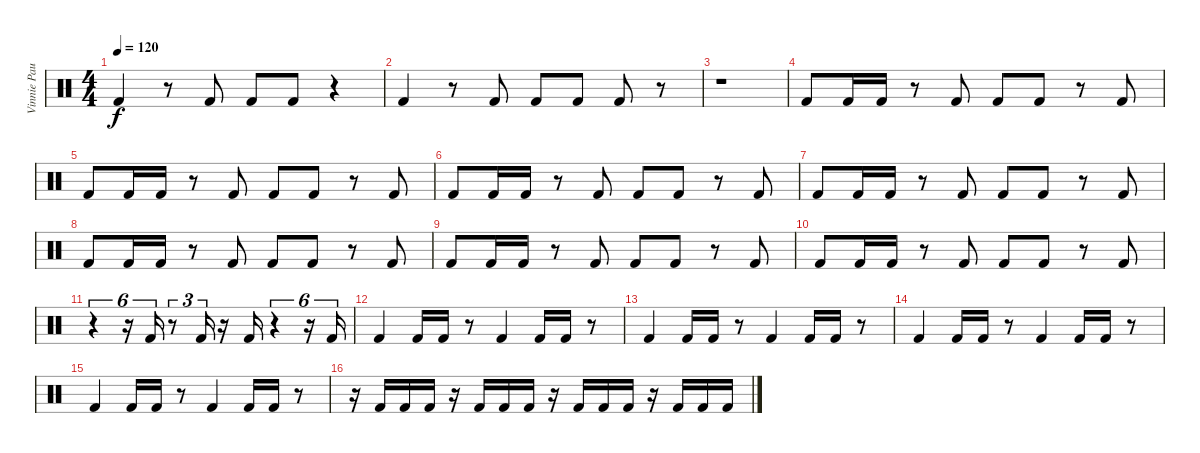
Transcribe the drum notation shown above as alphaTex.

\track ("Vinnie Paul bass drum" "Vinnie Pau") {instrument percussion}
\staff {score}
\articulation defaults
\ts (4 4)
\tempo 120
\clef neutral
\ks c "Kick (hit) 2".4{dy f}
r.8 "Kick (hit) 2".8 "Kick (hit) 2".8 "Kick (hit) 2".8 r.4 |
"Kick (hit) 2".4 r.8 "Kick (hit) 2".8 "Kick (hit) 2".8 "Kick (hit) 2".8 "Kick (hit) 2".8 r.8 |
r.1 |
"Kick (hit) 2".8 "Kick (hit) 2".16 "Kick (hit) 2".16 r.8 "Kick (hit) 2".8 "Kick (hit) 2".8 "Kick (hit) 2".8 r.8 "Kick (hit) 2".8 |
"Kick (hit) 2".8 "Kick (hit) 2".16 "Kick (hit) 2".16 r.8 "Kick (hit) 2".8 "Kick (hit) 2".8 "Kick (hit) 2".8 r.8 "Kick (hit) 2".8 |
"Kick (hit) 2".8 "Kick (hit) 2".16 "Kick (hit) 2".16 r.8 "Kick (hit) 2".8 "Kick (hit) 2".8 "Kick (hit) 2".8 r.8 "Kick (hit) 2".8 |
"Kick (hit) 2".8 "Kick (hit) 2".16 "Kick (hit) 2".16 r.8 "Kick (hit) 2".8 "Kick (hit) 2".8 "Kick (hit) 2".8 r.8 "Kick (hit) 2".8 |
"Kick (hit) 2".8 "Kick (hit) 2".16 "Kick (hit) 2".16 r.8 "Kick (hit) 2".8 "Kick (hit) 2".8 "Kick (hit) 2".8 r.8 "Kick (hit) 2".8 |
"Kick (hit) 2".8 "Kick (hit) 2".16 "Kick (hit) 2".16 r.8 "Kick (hit) 2".8 "Kick (hit) 2".8 "Kick (hit) 2".8 r.8 "Kick (hit) 2".8 |
"Kick (hit) 2".8 "Kick (hit) 2".16 "Kick (hit) 2".16 r.8 "Kick (hit) 2".8 "Kick (hit) 2".8 "Kick (hit) 2".8 r.8 "Kick (hit) 2".8 |
r.4{tu (6 4)} r.16{tu (6 4)} "Kick (hit) 2".16{tu (6 4)} r.8{tu (3 2)} "Kick (hit) 2".16{tu (3 2)} r.16 "Kick (hit) 2".16 r.4{tu (6 4)} r.16{tu (6 4)} "Kick (hit) 2".16{tu (6 4)} |
"Kick (hit) 2".4 "Kick (hit) 2".16 "Kick (hit) 2".16 r.8 "Kick (hit) 2".4 "Kick (hit) 2".16 "Kick (hit) 2".16 r.8 |
"Kick (hit) 2".4 "Kick (hit) 2".16 "Kick (hit) 2".16 r.8 "Kick (hit) 2".4 "Kick (hit) 2".16 "Kick (hit) 2".16 r.8 |
"Kick (hit) 2".4 "Kick (hit) 2".16 "Kick (hit) 2".16 r.8 "Kick (hit) 2".4 "Kick (hit) 2".16 "Kick (hit) 2".16 r.8 |
"Kick (hit) 2".4 "Kick (hit) 2".16 "Kick (hit) 2".16 r.8 "Kick (hit) 2".4 "Kick (hit) 2".16 "Kick (hit) 2".16 r.8 |
r.16 "Kick (hit) 2".16 "Kick (hit) 2".16 "Kick (hit) 2".16 r.16 "Kick (hit) 2".16 "Kick (hit) 2".16 "Kick (hit) 2".16 r.16 "Kick (hit) 2".16 "Kick (hit) 2".16 "Kick (hit) 2".16 r.16 "Kick (hit) 2".16 "Kick (hit) 2".16 "Kick (hit) 2".16
